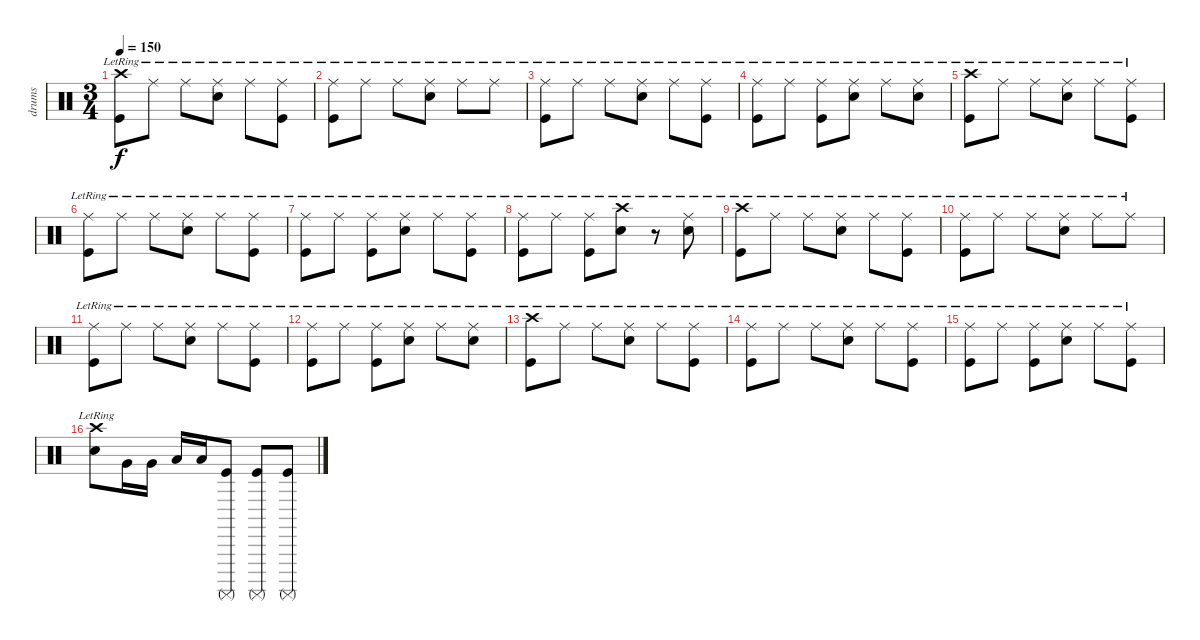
\track ("drums" "drums") {instrument percussion}
\staff {score}
\articulation defaults
\ts (3 4)
\tempo 150
\clef neutral
\ks c
("Crash high (hit)"{lr} "Kick (hit)").8{dy f} "Ride (middle)"{lr}.8 "Ride (middle)"{lr}.8 ("Ride (middle)"{lr} "Snare (hit) 2").8 "Ride (middle)"{lr}.8 ("Ride (middle)"{lr} "Kick (hit)").8 |
("Ride (middle)"{lr} "Kick (hit)").8 "Ride (middle)"{lr}.8 "Ride (middle)"{lr}.8 ("Ride (middle)"{lr} "Snare (hit) 2").8 "Ride (middle)"{lr}.8 "Ride (middle)"{lr}.8 |
("Ride (middle)"{lr} "Kick (hit)").8 "Ride (middle)"{lr}.8 "Ride (middle)"{lr}.8 ("Ride (middle)"{lr} "Snare (hit) 2").8 "Ride (middle)"{lr}.8 ("Ride (middle)"{lr} "Kick (hit)").8 |
("Ride (middle)"{lr} "Kick (hit)").8 "Ride (middle)"{lr}.8 ("Ride (middle)"{lr} "Kick (hit)").8 ("Ride (middle)"{lr} "Snare (hit) 2").8 "Ride (middle)"{lr}.8 ("Ride (middle)"{lr} "Snare (hit) 2").8 |
("Crash high (hit)"{lr} "Kick (hit)").8 "Ride (middle)"{lr}.8 "Ride (middle)"{lr}.8 ("Ride (middle)"{lr} "Snare (hit) 2").8 "Ride (middle)"{lr}.8 ("Ride (middle)"{lr} "Kick (hit)").8 |
("Ride (middle)"{lr} "Kick (hit)").8 "Ride (middle)"{lr}.8 "Ride (middle)"{lr}.8 ("Ride (middle)"{lr} "Snare (hit) 2").8 "Ride (middle)"{lr}.8 ("Ride (middle)"{lr} "Kick (hit)").8 |
("Ride (middle)"{lr} "Kick (hit)").8 "Ride (middle)"{lr}.8 ("Ride (middle)"{lr} "Kick (hit)").8 ("Ride (middle)"{lr} "Snare (hit) 2").8 "Ride (middle)"{lr}.8 ("Ride (middle)"{lr} "Kick (hit)").8 |
("Ride (middle)"{lr} "Kick (hit)").8 "Ride (middle)"{lr}.8 ("Ride (middle)"{lr} "Kick (hit)").8 ("Crash high (hit)"{lr} "Snare (hit) 2").8 r.8 ("Ride (middle)"{lr} "Snare (hit) 2").8 |
("Crash high (hit)"{lr} "Kick (hit)").8 "Ride (middle)"{lr}.8 "Ride (middle)"{lr}.8 ("Ride (middle)"{lr} "Snare (hit) 2").8 "Ride (middle)"{lr}.8 ("Ride (middle)"{lr} "Kick (hit)").8 |
("Ride (middle)"{lr} "Kick (hit)").8 "Ride (middle)"{lr}.8 "Ride (middle)"{lr}.8 ("Ride (middle)"{lr} "Snare (hit) 2").8 "Ride (middle)"{lr}.8 "Ride (middle)"{lr}.8 |
("Ride (middle)"{lr} "Kick (hit)").8 "Ride (middle)"{lr}.8 "Ride (middle)"{lr}.8 ("Ride (middle)"{lr} "Snare (hit) 2").8 "Ride (middle)"{lr}.8 ("Ride (middle)"{lr} "Kick (hit)").8 |
("Ride (middle)"{lr} "Kick (hit)").8 "Ride (middle)"{lr}.8 ("Ride (middle)"{lr} "Kick (hit)").8 ("Ride (middle)"{lr} "Snare (hit) 2").8 "Ride (middle)"{lr}.8 ("Ride (middle)"{lr} "Snare (hit) 2").8 |
("Crash high (hit)"{lr} "Kick (hit)").8 "Ride (middle)"{lr}.8 "Ride (middle)"{lr}.8 ("Ride (middle)"{lr} "Snare (hit) 2").8 "Ride (middle)"{lr}.8 ("Ride (middle)"{lr} "Kick (hit)").8 |
("Ride (middle)"{lr} "Kick (hit)").8 "Ride (middle)"{lr}.8 "Ride (middle)"{lr}.8 ("Ride (middle)"{lr} "Snare (hit) 2").8 "Ride (middle)"{lr}.8 ("Ride (middle)"{lr} "Kick (hit)").8 |
("Ride (middle)"{lr} "Kick (hit)").8 "Ride (middle)"{lr}.8 ("Ride (middle)"{lr} "Kick (hit)").8 ("Ride (middle)"{lr} "Snare (hit) 2").8 "Ride (middle)"{lr}.8 ("Ride (middle)"{lr} "Kick (hit)").8 |
("Crash high (hit)"{lr} "Snare (hit) 2").8 "Very Low Tom (hit)".16 "Very Low Tom (hit)".16 "Low Floor Tom (hit)".16 "Low Floor Tom (hit)".16 ("Surdo (mute)" "Kick (hit)").8 ("Surdo (mute)" "Kick (hit)").8 ("Surdo (mute)" "Kick (hit)").8
